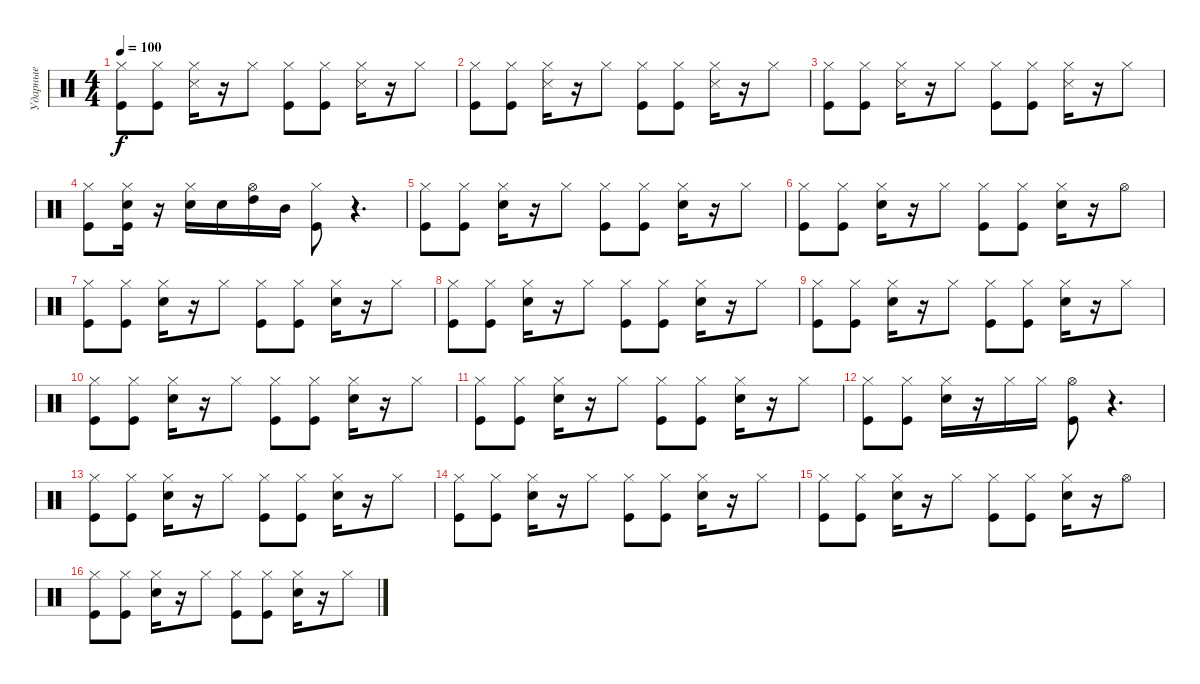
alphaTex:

\track ("Ударные" "Ударные") {instrument percussion}
\staff {score}
\articulation defaults
\ts (4 4)
\tempo 100
\clef neutral
\ks c
("Hi-Hat (closed)" "Kick (hit)").8{dy f} ("Kick (hit)" "Hi-Hat (closed)").8 ("Hi-Hat (closed)" "Snare (side stick) 3").16 r.16 "Hi-Hat (closed)".8 ("Hi-Hat (closed)" "Kick (hit)").8 ("Kick (hit)" "Hi-Hat (closed)").8 ("Hi-Hat (closed)" "Snare (side stick) 3").16 r.16 "Hi-Hat (closed)".8 |
("Hi-Hat (closed)" "Kick (hit)").8 ("Kick (hit)" "Hi-Hat (closed)").8 ("Hi-Hat (closed)" "Snare (side stick) 3").16 r.16 "Hi-Hat (closed)".8 ("Hi-Hat (closed)" "Kick (hit)").8 ("Kick (hit)" "Hi-Hat (closed)").8 ("Hi-Hat (closed)" "Snare (side stick) 3").16 r.16 "Hi-Hat (closed)".8 |
("Hi-Hat (closed)" "Kick (hit)").8 ("Kick (hit)" "Hi-Hat (closed)").8 ("Hi-Hat (closed)" "Snare (side stick) 3").16 r.16 "Hi-Hat (closed)".8 ("Hi-Hat (closed)" "Kick (hit)").8 ("Kick (hit)" "Hi-Hat (closed)").8 ("Hi-Hat (closed)" "Snare (side stick) 3").16 r.16 "Hi-Hat (closed)".8 |
("Hi-Hat (closed)" "Kick (hit)").8 ("Hi-Hat (closed)" "Snare (hit) 2" "Kick (hit)").16 r.16 ("Hi-Hat (closed)" "Snare (hit) 2").16 "Snare (hit) 2".16 ("High Tom (hit)" "Hi-Hat (open)").16 "Mid Tom (hit)".16 ("Hi-Hat (closed)" "Kick (hit)").8 r.4{d} |
("Hi-Hat (closed)" "Kick (hit)").8 ("Kick (hit)" "Hi-Hat (closed)").8 ("Hi-Hat (closed)" "Snare (hit) 2").16 r.16 "Hi-Hat (closed)".8 ("Hi-Hat (closed)" "Kick (hit)").8 ("Kick (hit)" "Hi-Hat (closed)").8 ("Hi-Hat (closed)" "Snare (hit) 2").16 r.16 "Hi-Hat (closed)".8 |
("Hi-Hat (closed)" "Kick (hit)").8 ("Kick (hit)" "Hi-Hat (closed)").8 ("Hi-Hat (closed)" "Snare (hit) 2").16 r.16 "Hi-Hat (closed)".8 ("Hi-Hat (closed)" "Kick (hit)").8 ("Kick (hit)" "Hi-Hat (closed)").8 ("Hi-Hat (closed)" "Snare (hit) 2").16 r.16 "Hi-Hat (open)".8 |
("Hi-Hat (closed)" "Kick (hit)").8 ("Kick (hit)" "Hi-Hat (closed)").8 ("Hi-Hat (closed)" "Snare (hit) 2").16 r.16 "Hi-Hat (closed)".8 ("Hi-Hat (closed)" "Kick (hit)").8 ("Kick (hit)" "Hi-Hat (closed)").8 ("Hi-Hat (closed)" "Snare (hit) 2").16 r.16 "Hi-Hat (closed)".8 |
("Hi-Hat (closed)" "Kick (hit)").8 ("Kick (hit)" "Hi-Hat (closed)").8 ("Hi-Hat (closed)" "Snare (hit) 2").16 r.16 "Hi-Hat (closed)".8 ("Hi-Hat (closed)" "Kick (hit)").8 ("Kick (hit)" "Hi-Hat (closed)").8 ("Hi-Hat (closed)" "Snare (hit) 2").16 r.16 "Hi-Hat (closed)".8 |
("Hi-Hat (closed)" "Kick (hit)").8 ("Kick (hit)" "Hi-Hat (closed)").8 ("Hi-Hat (closed)" "Snare (hit) 2").16 r.16 "Hi-Hat (closed)".8 ("Hi-Hat (closed)" "Kick (hit)").8 ("Kick (hit)" "Hi-Hat (closed)").8 ("Hi-Hat (closed)" "Snare (hit) 2").16 r.16 "Hi-Hat (closed)".8 |
("Hi-Hat (closed)" "Kick (hit)").8 ("Kick (hit)" "Hi-Hat (closed)").8 ("Hi-Hat (closed)" "Snare (hit) 2").16 r.16 "Hi-Hat (closed)".8 ("Hi-Hat (closed)" "Kick (hit)").8 ("Kick (hit)" "Hi-Hat (closed)").8 ("Hi-Hat (closed)" "Snare (hit) 2").16 r.16 "Hi-Hat (closed)".8 |
("Hi-Hat (closed)" "Kick (hit)").8 ("Kick (hit)" "Hi-Hat (closed)").8 ("Hi-Hat (closed)" "Snare (hit) 2").16 r.16 "Hi-Hat (closed)".8 ("Hi-Hat (closed)" "Kick (hit)").8 ("Kick (hit)" "Hi-Hat (closed)").8 ("Hi-Hat (closed)" "Snare (hit) 2").16 r.16 "Hi-Hat (closed)".8 |
("Hi-Hat (closed)" "Kick (hit)").8 ("Kick (hit)" "Hi-Hat (closed)").8 ("Hi-Hat (closed)" "Snare (hit) 2").16 r.16 "Hi-Hat (closed)".16 "Hi-Hat (closed)".16 ("Hi-Hat (open)" "Kick (hit)").8 r.4{d} |
("Hi-Hat (closed)" "Kick (hit)").8 ("Kick (hit)" "Hi-Hat (closed)").8 ("Hi-Hat (closed)" "Snare (hit) 2").16 r.16 "Hi-Hat (closed)".8 ("Hi-Hat (closed)" "Kick (hit)").8 ("Kick (hit)" "Hi-Hat (closed)").8 ("Hi-Hat (closed)" "Snare (hit) 2").16 r.16 "Hi-Hat (closed)".8 |
("Hi-Hat (closed)" "Kick (hit)").8 ("Kick (hit)" "Hi-Hat (closed)").8 ("Hi-Hat (closed)" "Snare (hit) 2").16 r.16 "Hi-Hat (closed)".8 ("Hi-Hat (closed)" "Kick (hit)").8 ("Kick (hit)" "Hi-Hat (closed)").8 ("Hi-Hat (closed)" "Snare (hit) 2").16 r.16 "Hi-Hat (closed)".8 |
("Hi-Hat (closed)" "Kick (hit)").8 ("Kick (hit)" "Hi-Hat (closed)").8 ("Hi-Hat (closed)" "Snare (hit) 2").16 r.16 "Hi-Hat (closed)".8 ("Hi-Hat (closed)" "Kick (hit)").8 ("Kick (hit)" "Hi-Hat (closed)").8 ("Hi-Hat (closed)" "Snare (hit) 2").16 r.16 "Hi-Hat (open)".8 |
("Hi-Hat (closed)" "Kick (hit)").8 ("Kick (hit)" "Hi-Hat (closed)").8 ("Hi-Hat (closed)" "Snare (hit) 2").16 r.16 "Hi-Hat (closed)".8 ("Hi-Hat (closed)" "Kick (hit)").8 ("Kick (hit)" "Hi-Hat (closed)").8 ("Hi-Hat (closed)" "Snare (hit) 2").16 r.16 "Hi-Hat (closed)".8
